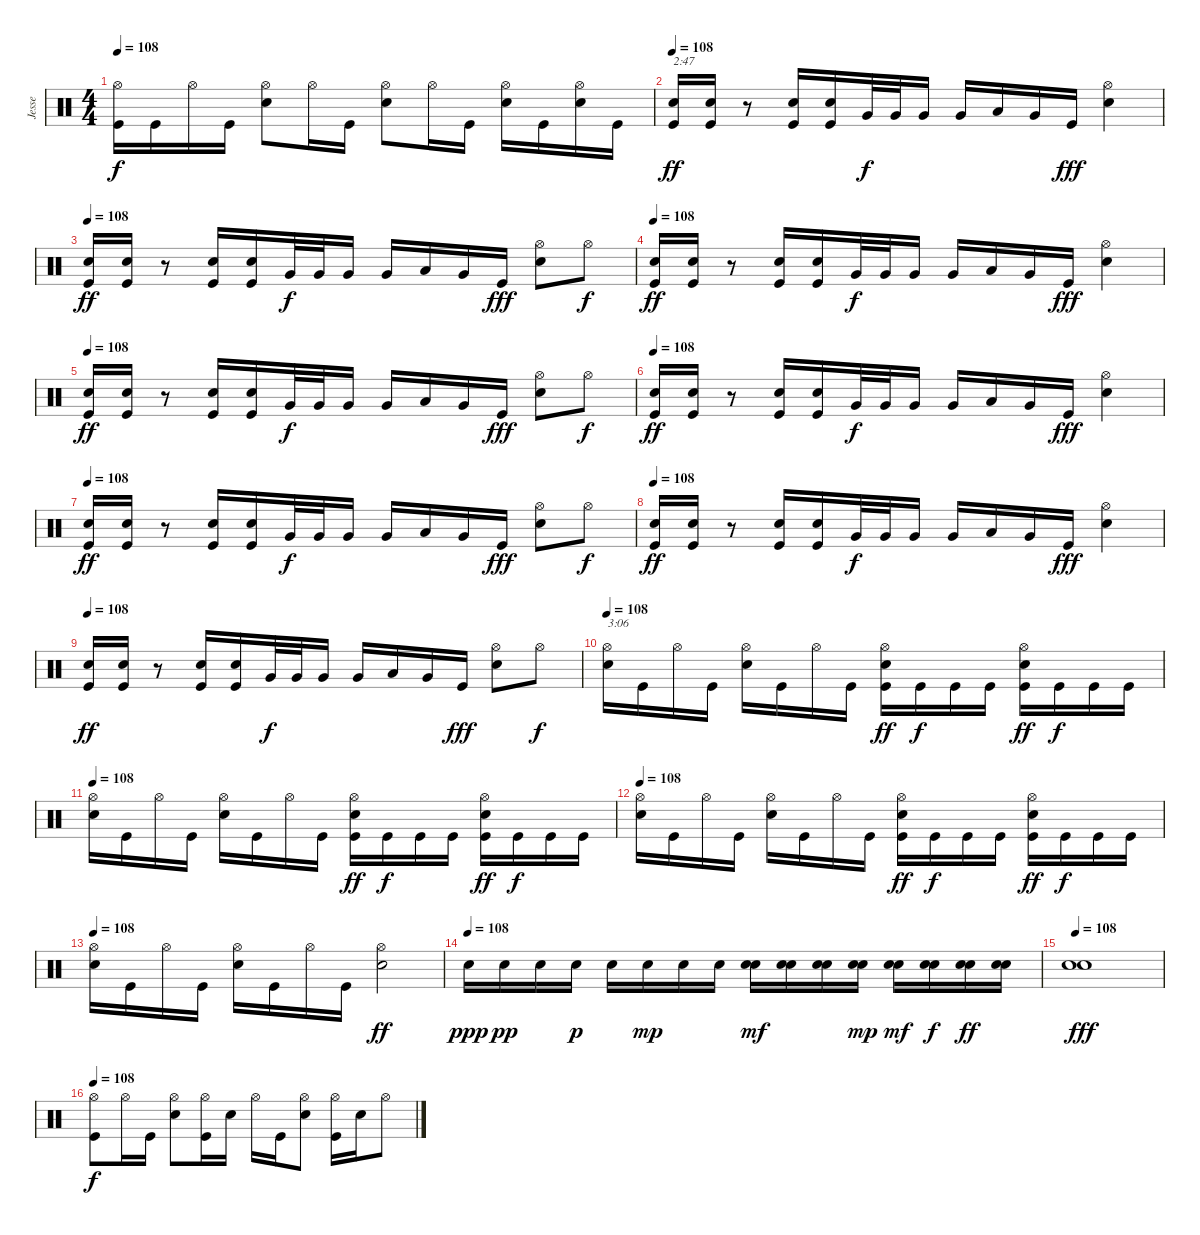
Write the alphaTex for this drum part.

\track ("Jesse" "Jesse") {instrument percussion}
\staff {score}
\articulation defaults
\ts (4 4)
\tempo 108
\clef neutral
\ks c
("Hi-Hat (open)" "Kick (hit)").16{dy f} "Kick (hit)".16 "Hi-Hat (open)".16 "Kick (hit)".16 ("Hi-Hat (open)" "Snare (hit) 2").8 "Hi-Hat (open)".16 "Kick (hit)".16 ("Hi-Hat (open)" "Snare (hit) 2").8 "Hi-Hat (open)".16 "Kick (hit)".16 ("Hi-Hat (open)" "Snare (hit) 2").16 "Kick (hit)".16 ("Hi-Hat (open)" "Snare (hit) 2").16 "Kick (hit)".16 |
\tempo 108
("Snare (hit) 2" "Kick (hit)").16{txt "2:47" dy ff} ("Snare (hit) 2" "Kick (hit)").16 r.8 ("Snare (hit) 2" "Kick (hit)").16 ("Snare (hit) 2" "Kick (hit)").16 "Very Low Tom (hit)".32{dy f} "Very Low Tom (hit)".32 "Very Low Tom (hit)".16 "Very Low Tom (hit)".16 "Low Floor Tom (hit)".16 "Very Low Tom (hit)".16 "Kick (hit)".16{dy fff} ("Hi-Hat (open)" "Snare (hit) 2").4 |
\tempo 108
("Snare (hit) 2" "Kick (hit)").16{dy ff} ("Snare (hit) 2" "Kick (hit)").16 r.8 ("Snare (hit) 2" "Kick (hit)").16 ("Snare (hit) 2" "Kick (hit)").16 "Very Low Tom (hit)".32{dy f} "Very Low Tom (hit)".32 "Very Low Tom (hit)".16 "Very Low Tom (hit)".16 "Low Floor Tom (hit)".16 "Very Low Tom (hit)".16 "Kick (hit)".16{dy fff} ("Hi-Hat (open)" "Snare (hit) 2").8 "Hi-Hat (open)".8{dy f} |
\tempo 108
("Snare (hit) 2" "Kick (hit)").16{dy ff} ("Snare (hit) 2" "Kick (hit)").16 r.8 ("Snare (hit) 2" "Kick (hit)").16 ("Snare (hit) 2" "Kick (hit)").16 "Very Low Tom (hit)".32{dy f} "Very Low Tom (hit)".32 "Very Low Tom (hit)".16 "Very Low Tom (hit)".16 "Low Floor Tom (hit)".16 "Very Low Tom (hit)".16 "Kick (hit)".16{dy fff} ("Hi-Hat (open)" "Snare (hit) 2").4 |
\tempo 108
("Snare (hit) 2" "Kick (hit)").16{dy ff} ("Snare (hit) 2" "Kick (hit)").16 r.8 ("Snare (hit) 2" "Kick (hit)").16 ("Snare (hit) 2" "Kick (hit)").16 "Very Low Tom (hit)".32{dy f} "Very Low Tom (hit)".32 "Very Low Tom (hit)".16 "Very Low Tom (hit)".16 "Low Floor Tom (hit)".16 "Very Low Tom (hit)".16 "Kick (hit)".16{dy fff} ("Hi-Hat (open)" "Snare (hit) 2").8 "Hi-Hat (open)".8{dy f} |
\tempo 108
("Snare (hit) 2" "Kick (hit)").16{dy ff} ("Snare (hit) 2" "Kick (hit)").16 r.8 ("Snare (hit) 2" "Kick (hit)").16 ("Snare (hit) 2" "Kick (hit)").16 "Very Low Tom (hit)".32{dy f} "Very Low Tom (hit)".32 "Very Low Tom (hit)".16 "Very Low Tom (hit)".16 "Low Floor Tom (hit)".16 "Very Low Tom (hit)".16 "Kick (hit)".16{dy fff} ("Hi-Hat (open)" "Snare (hit) 2").4 |
\tempo 108
("Snare (hit) 2" "Kick (hit)").16{dy ff} ("Snare (hit) 2" "Kick (hit)").16 r.8 ("Snare (hit) 2" "Kick (hit)").16 ("Snare (hit) 2" "Kick (hit)").16 "Very Low Tom (hit)".32{dy f} "Very Low Tom (hit)".32 "Very Low Tom (hit)".16 "Very Low Tom (hit)".16 "Low Floor Tom (hit)".16 "Very Low Tom (hit)".16 "Kick (hit)".16{dy fff} ("Hi-Hat (open)" "Snare (hit) 2").8 "Hi-Hat (open)".8{dy f} |
\tempo 108
("Snare (hit) 2" "Kick (hit)").16{dy ff} ("Snare (hit) 2" "Kick (hit)").16 r.8 ("Snare (hit) 2" "Kick (hit)").16 ("Snare (hit) 2" "Kick (hit)").16 "Very Low Tom (hit)".32{dy f} "Very Low Tom (hit)".32 "Very Low Tom (hit)".16 "Very Low Tom (hit)".16 "Low Floor Tom (hit)".16 "Very Low Tom (hit)".16 "Kick (hit)".16{dy fff} ("Hi-Hat (open)" "Snare (hit) 2").4 |
\tempo 108
("Snare (hit) 2" "Kick (hit)").16{dy ff} ("Snare (hit) 2" "Kick (hit)").16 r.8 ("Snare (hit) 2" "Kick (hit)").16 ("Snare (hit) 2" "Kick (hit)").16 "Very Low Tom (hit)".32{dy f} "Very Low Tom (hit)".32 "Very Low Tom (hit)".16 "Very Low Tom (hit)".16 "Low Floor Tom (hit)".16 "Very Low Tom (hit)".16 "Kick (hit)".16{dy fff} ("Hi-Hat (open)" "Snare (hit) 2").8 "Hi-Hat (open)".8{dy f} |
\tempo 108
("Hi-Hat (open)" "Snare (hit) 2").16{txt "3:06"} "Kick (hit)".16 "Hi-Hat (open)".16 "Kick (hit)".16 ("Hi-Hat (open)" "Snare (hit) 2").16 "Kick (hit)".16 "Hi-Hat (open)".16 "Kick (hit)".16 ("Hi-Hat (open)" "Snare (hit) 2" "Kick (hit)").16{dy ff} "Kick (hit)".16{dy f} "Kick (hit)".16 "Kick (hit)".16 ("Hi-Hat (open)" "Snare (hit) 2" "Kick (hit)").16{dy ff} "Kick (hit)".16{dy f} "Kick (hit)".16 "Kick (hit)".16 |
\tempo 108
("Hi-Hat (open)" "Snare (hit) 2").16 "Kick (hit)".16 "Hi-Hat (open)".16 "Kick (hit)".16 ("Hi-Hat (open)" "Snare (hit) 2").16 "Kick (hit)".16 "Hi-Hat (open)".16 "Kick (hit)".16 ("Hi-Hat (open)" "Snare (hit) 2" "Kick (hit)").16{dy ff} "Kick (hit)".16{dy f} "Kick (hit)".16 "Kick (hit)".16 ("Hi-Hat (open)" "Snare (hit) 2" "Kick (hit)").16{dy ff} "Kick (hit)".16{dy f} "Kick (hit)".16 "Kick (hit)".16 |
\tempo 108
("Hi-Hat (open)" "Snare (hit) 2").16 "Kick (hit)".16 "Hi-Hat (open)".16 "Kick (hit)".16 ("Hi-Hat (open)" "Snare (hit) 2").16 "Kick (hit)".16 "Hi-Hat (open)".16 "Kick (hit)".16 ("Hi-Hat (open)" "Snare (hit) 2" "Kick (hit)").16{dy ff} "Kick (hit)".16{dy f} "Kick (hit)".16 "Kick (hit)".16 ("Hi-Hat (open)" "Snare (hit) 2" "Kick (hit)").16{dy ff} "Kick (hit)".16{dy f} "Kick (hit)".16 "Kick (hit)".16 |
\tempo 108
("Hi-Hat (open)" "Snare (hit) 2").16 "Kick (hit)".16 "Hi-Hat (open)".16 "Kick (hit)".16 ("Hi-Hat (open)" "Snare (hit) 2").16 "Kick (hit)".16 "Hi-Hat (open)".16 "Kick (hit)".16 ("Hi-Hat (open)" "Snare (hit) 2").2{dy ff} |
\tempo (108)
"Snare (hit) 2".16{dy ppp} "Snare (hit) 2".16{dy pp} "Snare (hit) 2".16 "Snare (hit) 2".16{dy p} "Snare (hit) 2".16 "Snare (hit) 2".16{dy mp} "Snare (hit) 2".16 "Snare (hit) 2".16 ("Snare (hit) 2" "Snare (hit) 2").16{dy mf} ("Snare (hit) 2" "Snare (hit) 2").16 ("Snare (hit) 2" "Snare (hit) 2").16 ("Snare (hit) 2" "Snare (hit) 2").16{dy mp} ("Snare (hit) 2" "Snare (hit) 2").16{dy mf} ("Snare (hit) 2" "Snare (hit) 2").16{dy f} ("Snare (hit) 2" "Snare (hit) 2").16{dy ff} ("Snare (hit) 2" "Snare (hit) 2").16 |
\tempo 108
("Snare (hit) 2" "Snare (hit) 2").1{dy fff} |
\tempo 108
("Hi-Hat (open)" "Kick (hit)").8{dy f} "Hi-Hat (open)".16 "Kick (hit)".16 ("Hi-Hat (open)" "Snare (hit) 2").8 ("Hi-Hat (open)" "Kick (hit)").16 "Snare (hit) 2".16 "Hi-Hat (open)".16 "Kick (hit)".16 ("Hi-Hat (open)" "Snare (hit) 2").8 ("Hi-Hat (open)" "Kick (hit)").16 "Snare (hit) 2".16 "Hi-Hat (open)".8
